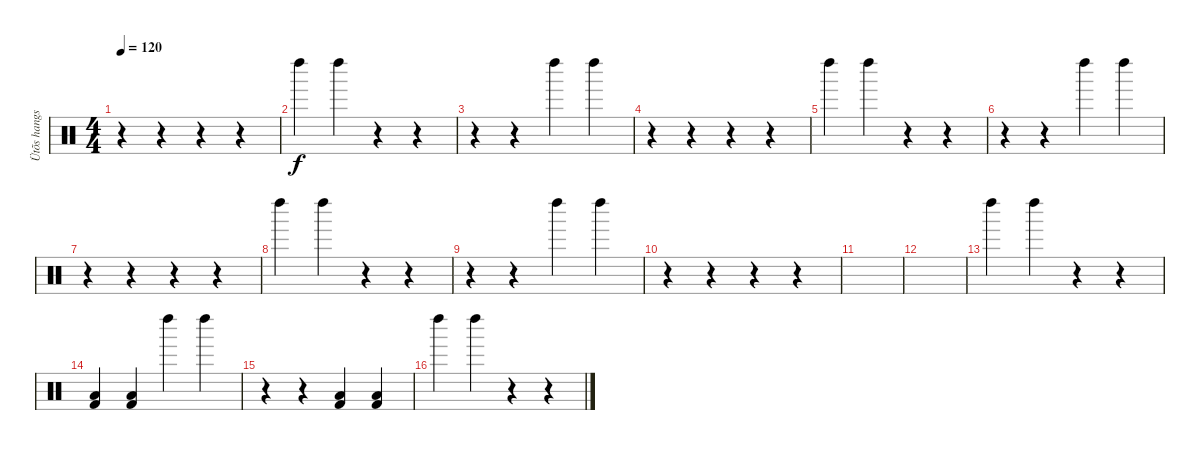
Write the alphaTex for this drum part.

\track ("Ütõs hangszer" "Ütõs hangs") {instrument percussion}
\staff {score}
\articulation defaults
\ts (4 4)
\tempo 120
\clef neutral
\ks c
r.4{dy f} r.4 r.4 r.4 |
"Left Maraca (hit)".4 "Left Maraca (hit)".4 r.4 r.4 |
r.4 r.4 "Left Maraca (hit)".4 "Left Maraca (hit)".4 |
r.4 r.4 r.4 r.4 |
"Left Maraca (hit)".4 "Left Maraca (hit)".4 r.4 r.4 |
r.4 r.4 "Left Maraca (hit)".4 "Left Maraca (hit)".4 |
r.4 r.4 r.4 r.4 |
"Left Maraca (hit)".4 "Left Maraca (hit)".4 r.4 r.4 |
r.4 r.4 "Left Maraca (hit)".4 "Left Maraca (hit)".4 |
r.4 r.4 r.4 r.4 |
|
|
"Left Maraca (hit)".4 "Left Maraca (hit)".4 r.4 r.4 |
("Kick (hit) 2" "Low Floor Tom (hit)").4 ("Kick (hit) 2" "Low Floor Tom (hit)").4 "Left Maraca (hit)".4 "Left Maraca (hit)".4 |
r.4 r.4 ("Kick (hit) 2" "Low Floor Tom (hit)").4 ("Kick (hit) 2" "Low Floor Tom (hit)").4 |
"Left Maraca (hit)".4 "Left Maraca (hit)".4 r.4 r.4
